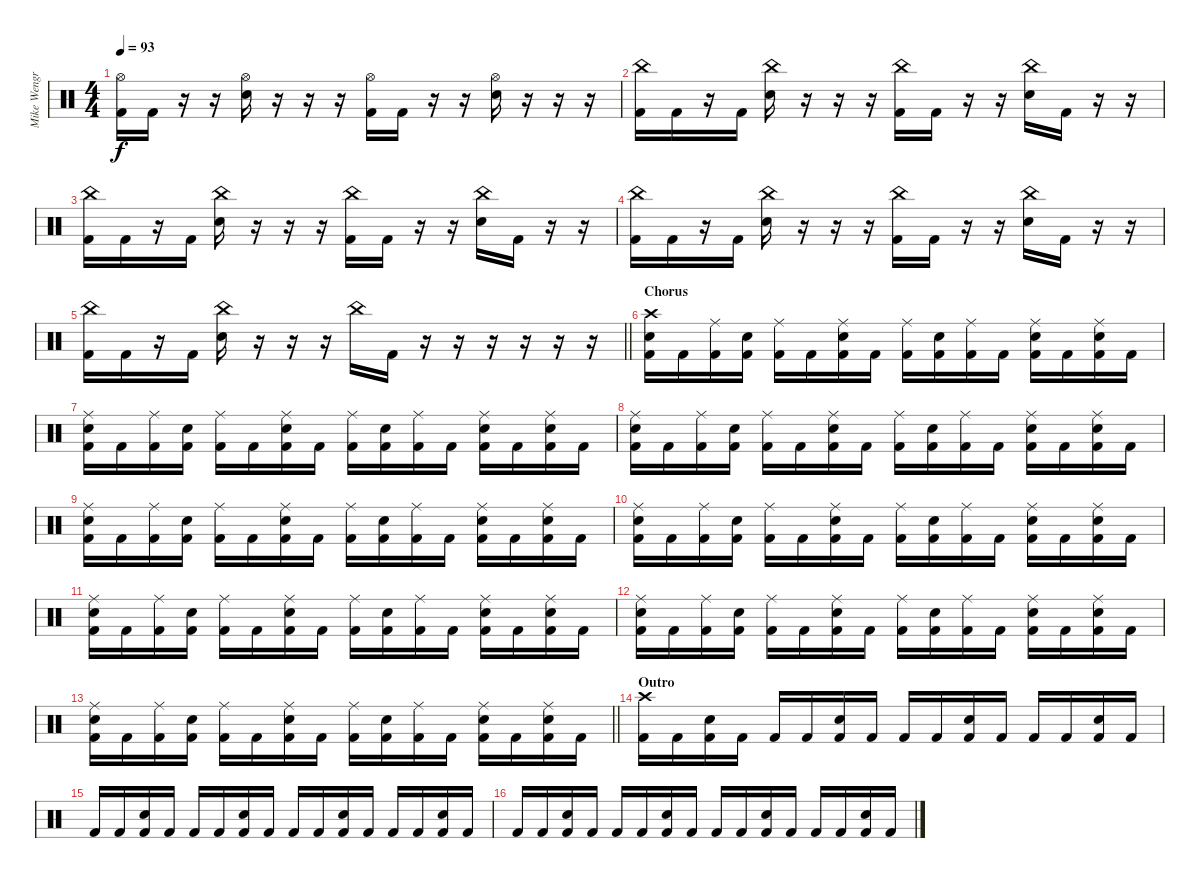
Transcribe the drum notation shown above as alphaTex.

\track ("Mike Wengren" "Mike Wengr") {instrument percussion}
\staff {score}
\articulation defaults
\ts (4 4)
\tempo 93
\clef neutral
\ks c
("Hi-Hat (open)" "Kick (hit) 2").16{dy f} "Kick (hit) 2".16 r.16 r.16 ("Hi-Hat (open)" "Electric Snare (hit)").16 r.16 r.16 r.16 ("Hi-Hat (open)" "Kick (hit) 2").16 "Kick (hit) 2".16 r.16 r.16 ("Hi-Hat (open)" "Electric Snare (hit)").16 r.16 r.16 r.16 |
("China (hit)" "Kick (hit) 2").16 "Kick (hit) 2".16 r.16 "Kick (hit) 2".16 ("China (hit)" "Electric Snare (hit)").16 r.16 r.16 r.16 ("China (hit)" "Kick (hit) 2").16 "Kick (hit) 2".16 r.16 r.16 ("China (hit)" "Electric Snare (hit)").16 "Kick (hit) 2".16 r.16 r.16 |
("China (hit)" "Kick (hit) 2").16 "Kick (hit) 2".16 r.16 "Kick (hit) 2".16 ("China (hit)" "Electric Snare (hit)").16 r.16 r.16 r.16 ("China (hit)" "Kick (hit) 2").16 "Kick (hit) 2".16 r.16 r.16 ("China (hit)" "Electric Snare (hit)").16 "Kick (hit) 2".16 r.16 r.16 |
("China (hit)" "Kick (hit) 2").16 "Kick (hit) 2".16 r.16 "Kick (hit) 2".16 ("China (hit)" "Electric Snare (hit)").16 r.16 r.16 r.16 ("China (hit)" "Kick (hit) 2").16 "Kick (hit) 2".16 r.16 r.16 ("China (hit)" "Electric Snare (hit)").16 "Kick (hit) 2".16 r.16 r.16 |
\barLineRight lightlight
("China (hit)" "Kick (hit) 2").16 "Kick (hit) 2".16 r.16 "Kick (hit) 2".16 ("China (hit)" "Electric Snare (hit)").16 r.16 r.16 r.16 "China (hit)".16 "Kick (hit) 2".16 r.16 r.16 r.16 r.16 r.16 r.16 |
\section ("" "Chorus")
("Crash high (hit)" "Electric Snare (hit)" "Kick (hit) 2").16 "Kick (hit) 2".16 ("Ride (middle)" "Kick (hit) 2").16 ("Electric Snare (hit)" "Kick (hit) 2").16 ("Ride (middle)" "Kick (hit) 2").16 "Kick (hit) 2".16 ("Ride (middle)" "Electric Snare (hit)" "Kick (hit) 2").16 "Kick (hit) 2".16 ("Ride (middle)" "Kick (hit) 2").16 ("Electric Snare (hit)" "Kick (hit) 2").16 ("Ride (middle)" "Kick (hit) 2").16 "Kick (hit) 2".16 ("Ride (middle)" "Electric Snare (hit)" "Kick (hit) 2").16 "Kick (hit) 2".16 ("Ride (middle)" "Electric Snare (hit)" "Kick (hit) 2").16 "Kick (hit) 2".16 |
("Ride (middle)" "Electric Snare (hit)" "Kick (hit) 2").16 "Kick (hit) 2".16 ("Ride (middle)" "Kick (hit) 2").16 ("Electric Snare (hit)" "Kick (hit) 2").16 ("Ride (middle)" "Kick (hit) 2").16 "Kick (hit) 2".16 ("Ride (middle)" "Electric Snare (hit)" "Kick (hit) 2").16 "Kick (hit) 2".16 ("Ride (middle)" "Kick (hit) 2").16 ("Electric Snare (hit)" "Kick (hit) 2").16 ("Ride (middle)" "Kick (hit) 2").16 "Kick (hit) 2".16 ("Ride (middle)" "Electric Snare (hit)" "Kick (hit) 2").16 "Kick (hit) 2".16 ("Ride (middle)" "Electric Snare (hit)" "Kick (hit) 2").16 "Kick (hit) 2".16 |
("Ride (middle)" "Electric Snare (hit)" "Kick (hit) 2").16 "Kick (hit) 2".16 ("Ride (middle)" "Kick (hit) 2").16 ("Electric Snare (hit)" "Kick (hit) 2").16 ("Ride (middle)" "Kick (hit) 2").16 "Kick (hit) 2".16 ("Ride (middle)" "Electric Snare (hit)" "Kick (hit) 2").16 "Kick (hit) 2".16 ("Ride (middle)" "Kick (hit) 2").16 ("Electric Snare (hit)" "Kick (hit) 2").16 ("Ride (middle)" "Kick (hit) 2").16 "Kick (hit) 2".16 ("Ride (middle)" "Electric Snare (hit)" "Kick (hit) 2").16 "Kick (hit) 2".16 ("Ride (middle)" "Electric Snare (hit)" "Kick (hit) 2").16 "Kick (hit) 2".16 |
("Ride (middle)" "Electric Snare (hit)" "Kick (hit) 2").16 "Kick (hit) 2".16 ("Ride (middle)" "Kick (hit) 2").16 ("Electric Snare (hit)" "Kick (hit) 2").16 ("Ride (middle)" "Kick (hit) 2").16 "Kick (hit) 2".16 ("Ride (middle)" "Electric Snare (hit)" "Kick (hit) 2").16 "Kick (hit) 2".16 ("Ride (middle)" "Kick (hit) 2").16 ("Electric Snare (hit)" "Kick (hit) 2").16 ("Ride (middle)" "Kick (hit) 2").16 "Kick (hit) 2".16 ("Ride (middle)" "Electric Snare (hit)" "Kick (hit) 2").16 "Kick (hit) 2".16 ("Ride (middle)" "Electric Snare (hit)" "Kick (hit) 2").16 "Kick (hit) 2".16 |
("Ride (middle)" "Electric Snare (hit)" "Kick (hit) 2").16 "Kick (hit) 2".16 ("Ride (middle)" "Kick (hit) 2").16 ("Electric Snare (hit)" "Kick (hit) 2").16 ("Ride (middle)" "Kick (hit) 2").16 "Kick (hit) 2".16 ("Ride (middle)" "Electric Snare (hit)" "Kick (hit) 2").16 "Kick (hit) 2".16 ("Ride (middle)" "Kick (hit) 2").16 ("Electric Snare (hit)" "Kick (hit) 2").16 ("Ride (middle)" "Kick (hit) 2").16 "Kick (hit) 2".16 ("Ride (middle)" "Electric Snare (hit)" "Kick (hit) 2").16 "Kick (hit) 2".16 ("Ride (middle)" "Electric Snare (hit)" "Kick (hit) 2").16 "Kick (hit) 2".16 |
("Ride (middle)" "Electric Snare (hit)" "Kick (hit) 2").16 "Kick (hit) 2".16 ("Ride (middle)" "Kick (hit) 2").16 ("Electric Snare (hit)" "Kick (hit) 2").16 ("Ride (middle)" "Kick (hit) 2").16 "Kick (hit) 2".16 ("Ride (middle)" "Electric Snare (hit)" "Kick (hit) 2").16 "Kick (hit) 2".16 ("Ride (middle)" "Kick (hit) 2").16 ("Electric Snare (hit)" "Kick (hit) 2").16 ("Ride (middle)" "Kick (hit) 2").16 "Kick (hit) 2".16 ("Ride (middle)" "Electric Snare (hit)" "Kick (hit) 2").16 "Kick (hit) 2".16 ("Ride (middle)" "Electric Snare (hit)" "Kick (hit) 2").16 "Kick (hit) 2".16 |
("Ride (middle)" "Electric Snare (hit)" "Kick (hit) 2").16 "Kick (hit) 2".16 ("Ride (middle)" "Kick (hit) 2").16 ("Electric Snare (hit)" "Kick (hit) 2").16 ("Ride (middle)" "Kick (hit) 2").16 "Kick (hit) 2".16 ("Ride (middle)" "Electric Snare (hit)" "Kick (hit) 2").16 "Kick (hit) 2".16 ("Ride (middle)" "Kick (hit) 2").16 ("Electric Snare (hit)" "Kick (hit) 2").16 ("Ride (middle)" "Kick (hit) 2").16 "Kick (hit) 2".16 ("Ride (middle)" "Electric Snare (hit)" "Kick (hit) 2").16 "Kick (hit) 2".16 ("Ride (middle)" "Electric Snare (hit)" "Kick (hit) 2").16 "Kick (hit) 2".16 |
\barLineRight lightlight
("Ride (middle)" "Electric Snare (hit)" "Kick (hit) 2").16 "Kick (hit) 2".16 ("Ride (middle)" "Kick (hit) 2").16 ("Electric Snare (hit)" "Kick (hit) 2").16 ("Ride (middle)" "Kick (hit) 2").16 "Kick (hit) 2".16 ("Ride (middle)" "Electric Snare (hit)" "Kick (hit) 2").16 "Kick (hit) 2".16 ("Ride (middle)" "Kick (hit) 2").16 ("Electric Snare (hit)" "Kick (hit) 2").16 ("Ride (middle)" "Kick (hit) 2").16 "Kick (hit) 2".16 ("Ride (middle)" "Electric Snare (hit)" "Kick (hit) 2").16 "Kick (hit) 2".16 ("Ride (middle)" "Electric Snare (hit)" "Kick (hit) 2").16 "Kick (hit) 2".16 |
\section ("" "Outro")
("Crash high (hit)" "Kick (hit) 2").16 "Kick (hit) 2".16 ("Electric Snare (hit)" "Kick (hit) 2").16 "Kick (hit) 2".16 "Kick (hit) 2".16 "Kick (hit) 2".16 ("Electric Snare (hit)" "Kick (hit) 2").16 "Kick (hit) 2".16 "Kick (hit) 2".16 "Kick (hit) 2".16 ("Electric Snare (hit)" "Kick (hit) 2").16 "Kick (hit) 2".16 "Kick (hit) 2".16 "Kick (hit) 2".16 ("Electric Snare (hit)" "Kick (hit) 2").16 "Kick (hit) 2".16 |
"Kick (hit) 2".16 "Kick (hit) 2".16 ("Electric Snare (hit)" "Kick (hit) 2").16 "Kick (hit) 2".16 "Kick (hit) 2".16 "Kick (hit) 2".16 ("Electric Snare (hit)" "Kick (hit) 2").16 "Kick (hit) 2".16 "Kick (hit) 2".16 "Kick (hit) 2".16 ("Electric Snare (hit)" "Kick (hit) 2").16 "Kick (hit) 2".16 "Kick (hit) 2".16 "Kick (hit) 2".16 ("Electric Snare (hit)" "Kick (hit) 2").16 "Kick (hit) 2".16 |
"Kick (hit) 2".16 "Kick (hit) 2".16 ("Electric Snare (hit)" "Kick (hit) 2").16 "Kick (hit) 2".16 "Kick (hit) 2".16 "Kick (hit) 2".16 ("Electric Snare (hit)" "Kick (hit) 2").16 "Kick (hit) 2".16 "Kick (hit) 2".16 "Kick (hit) 2".16 ("Electric Snare (hit)" "Kick (hit) 2").16 "Kick (hit) 2".16 "Kick (hit) 2".16 "Kick (hit) 2".16 ("Electric Snare (hit)" "Kick (hit) 2").16 "Kick (hit) 2".16
